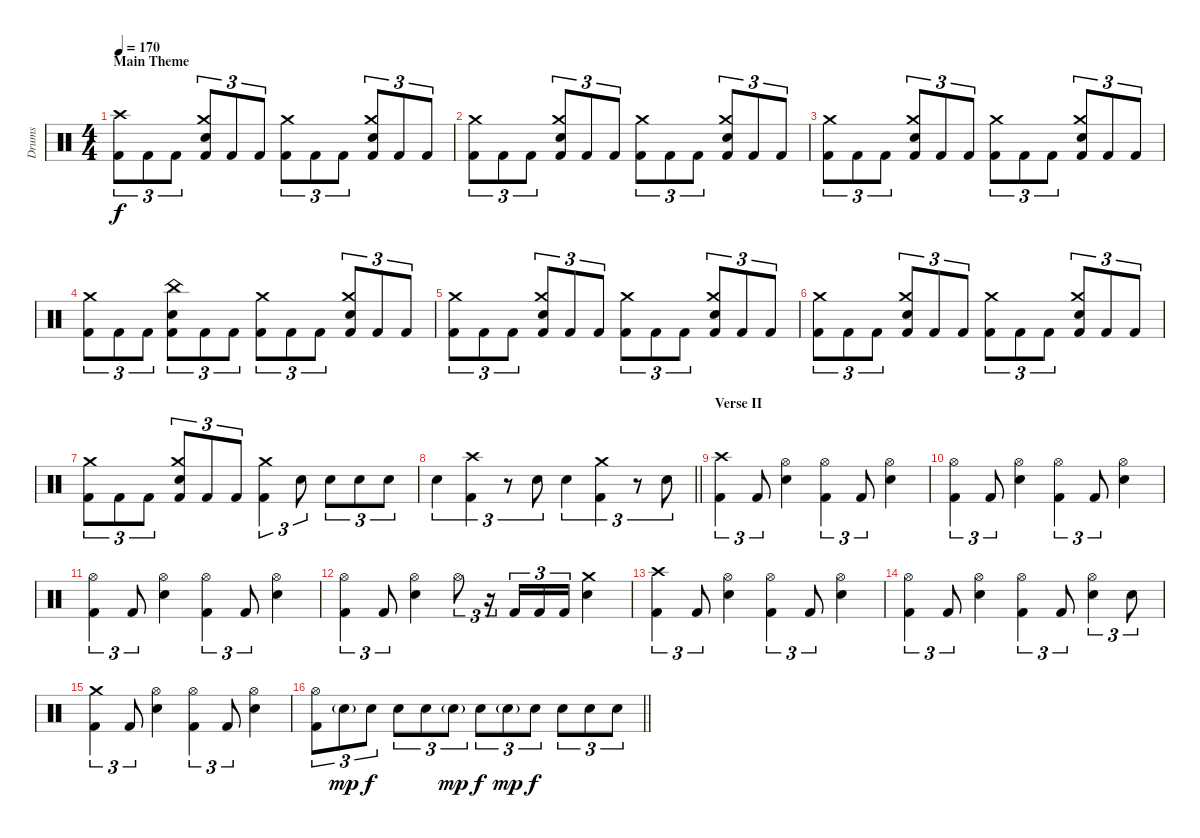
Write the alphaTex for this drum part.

\track ("Drums" "Drums") {instrument percussion}
\staff {score}
\articulation defaults
\ts (4 4)
\section ("" "Main Theme")
\tempo 170
\clef neutral
\ks c
("Crash high (hit)" "Kick (hit) 2").8{tu (3 2) dy f} "Kick (hit) 2".8{tu (3 2)} "Kick (hit) 2".8{tu (3 2)} ("Crash medium (hit)" "Electric Snare (hit)" "Kick (hit) 2").8{tu (3 2)} "Kick (hit) 2".8{tu (3 2)} "Kick (hit) 2".8{tu (3 2)} ("Crash medium (hit)" "Kick (hit) 2").8{tu (3 2)} "Kick (hit) 2".8{tu (3 2)} "Kick (hit) 2".8{tu (3 2)} ("Crash medium (hit)" "Electric Snare (hit)" "Kick (hit) 2").8{tu (3 2)} "Kick (hit) 2".8{tu (3 2)} "Kick (hit) 2".8{tu (3 2)} |
("Crash medium (hit)" "Kick (hit) 2").8{tu (3 2)} "Kick (hit) 2".8{tu (3 2)} "Kick (hit) 2".8{tu (3 2)} ("Crash medium (hit)" "Electric Snare (hit)" "Kick (hit) 2").8{tu (3 2)} "Kick (hit) 2".8{tu (3 2)} "Kick (hit) 2".8{tu (3 2)} ("Crash medium (hit)" "Kick (hit) 2").8{tu (3 2)} "Kick (hit) 2".8{tu (3 2)} "Kick (hit) 2".8{tu (3 2)} ("Crash medium (hit)" "Electric Snare (hit)" "Kick (hit) 2").8{tu (3 2)} "Kick (hit) 2".8{tu (3 2)} "Kick (hit) 2".8{tu (3 2)} |
("Crash medium (hit)" "Kick (hit) 2").8{tu (3 2)} "Kick (hit) 2".8{tu (3 2)} "Kick (hit) 2".8{tu (3 2)} ("Crash medium (hit)" "Electric Snare (hit)" "Kick (hit) 2").8{tu (3 2)} "Kick (hit) 2".8{tu (3 2)} "Kick (hit) 2".8{tu (3 2)} ("Crash medium (hit)" "Kick (hit) 2").8{tu (3 2)} "Kick (hit) 2".8{tu (3 2)} "Kick (hit) 2".8{tu (3 2)} ("Crash medium (hit)" "Electric Snare (hit)" "Kick (hit) 2").8{tu (3 2)} "Kick (hit) 2".8{tu (3 2)} "Kick (hit) 2".8{tu (3 2)} |
("Crash medium (hit)" "Kick (hit) 2").8{tu (3 2)} "Kick (hit) 2".8{tu (3 2)} "Kick (hit) 2".8{tu (3 2)} ("China (hit)" "Electric Snare (hit)" "Kick (hit) 2").8{tu (3 2)} "Kick (hit) 2".8{tu (3 2)} "Kick (hit) 2".8{tu (3 2)} ("Crash medium (hit)" "Kick (hit) 2").8{tu (3 2)} "Kick (hit) 2".8{tu (3 2)} "Kick (hit) 2".8{tu (3 2)} ("Crash medium (hit)" "Electric Snare (hit)" "Kick (hit) 2").8{tu (3 2)} "Kick (hit) 2".8{tu (3 2)} "Kick (hit) 2".8{tu (3 2)} |
("Crash medium (hit)" "Kick (hit) 2").8{tu (3 2)} "Kick (hit) 2".8{tu (3 2)} "Kick (hit) 2".8{tu (3 2)} ("Crash medium (hit)" "Electric Snare (hit)" "Kick (hit) 2").8{tu (3 2)} "Kick (hit) 2".8{tu (3 2)} "Kick (hit) 2".8{tu (3 2)} ("Crash medium (hit)" "Kick (hit) 2").8{tu (3 2)} "Kick (hit) 2".8{tu (3 2)} "Kick (hit) 2".8{tu (3 2)} ("Crash medium (hit)" "Electric Snare (hit)" "Kick (hit) 2").8{tu (3 2)} "Kick (hit) 2".8{tu (3 2)} "Kick (hit) 2".8{tu (3 2)} |
("Crash medium (hit)" "Kick (hit) 2").8{tu (3 2)} "Kick (hit) 2".8{tu (3 2)} "Kick (hit) 2".8{tu (3 2)} ("Crash medium (hit)" "Electric Snare (hit)" "Kick (hit) 2").8{tu (3 2)} "Kick (hit) 2".8{tu (3 2)} "Kick (hit) 2".8{tu (3 2)} ("Crash medium (hit)" "Kick (hit) 2").8{tu (3 2)} "Kick (hit) 2".8{tu (3 2)} "Kick (hit) 2".8{tu (3 2)} ("Crash medium (hit)" "Electric Snare (hit)" "Kick (hit) 2").8{tu (3 2)} "Kick (hit) 2".8{tu (3 2)} "Kick (hit) 2".8{tu (3 2)} |
("Crash medium (hit)" "Kick (hit) 2").8{tu (3 2)} "Kick (hit) 2".8{tu (3 2)} "Kick (hit) 2".8{tu (3 2)} ("Crash medium (hit)" "Electric Snare (hit)" "Kick (hit) 2").8{tu (3 2)} "Kick (hit) 2".8{tu (3 2)} "Kick (hit) 2".8{tu (3 2)} ("Crash medium (hit)" "Kick (hit) 2").4{tu (3 2)} "Electric Snare (hit)".8{tu (3 2)} "Electric Snare (hit)".8{tu (3 2)} "Electric Snare (hit)".8{tu (3 2)} "Electric Snare (hit)".8{tu (3 2)} |
\barLineRight lightlight "Electric Snare (hit)".4{tu (3 2)}
("Crash high (hit)" "Kick (hit) 2").4{tu (3 2)} r.8{tu (3 2)} "Electric Snare (hit)".8{tu (3 2)} "Electric Snare (hit)".4{tu (3 2)} ("Crash medium (hit)" "Kick (hit) 2").4{tu (3 2)} r.8{tu (3 2)} "Electric Snare (hit)".8{tu (3 2)} |
\section ("" "Verse II")
("Crash high (hit)" "Kick (hit) 2").4{tu (3 2)} "Kick (hit) 2".8{tu (3 2)} ("Hi-Hat (open)" "Electric Snare (hit)").4 ("Hi-Hat (open)" "Kick (hit) 2").4{tu (3 2)} "Kick (hit) 2".8{tu (3 2)} ("Hi-Hat (open)" "Electric Snare (hit)").4 |
("Hi-Hat (open)" "Kick (hit) 2").4{tu (3 2)} "Kick (hit) 2".8{tu (3 2)} ("Hi-Hat (open)" "Electric Snare (hit)").4 ("Hi-Hat (open)" "Kick (hit) 2").4{tu (3 2)} "Kick (hit) 2".8{tu (3 2)} ("Hi-Hat (open)" "Electric Snare (hit)").4 |
("Hi-Hat (open)" "Kick (hit) 2").4{tu (3 2)} "Kick (hit) 2".8{tu (3 2)} ("Hi-Hat (open)" "Electric Snare (hit)").4 ("Hi-Hat (open)" "Kick (hit) 2").4{tu (3 2)} "Kick (hit) 2".8{tu (3 2)} ("Hi-Hat (open)" "Electric Snare (hit)").4 |
("Hi-Hat (open)" "Kick (hit) 2").4{tu (3 2)} "Kick (hit) 2".8{tu (3 2)} ("Hi-Hat (open)" "Electric Snare (hit)").4 "Hi-Hat (open)".8{tu (3 2)} r.16{tu (3 2)} "Kick (hit) 2".16{tu (3 2)} "Kick (hit) 2".16{tu (3 2)} "Kick (hit) 2".16{tu (3 2)} ("Crash medium (hit)" "Electric Snare (hit)").4 |
("Crash high (hit)" "Kick (hit) 2").4{tu (3 2)} "Kick (hit) 2".8{tu (3 2)} ("Hi-Hat (open)" "Electric Snare (hit)").4 ("Hi-Hat (open)" "Kick (hit) 2").4{tu (3 2)} "Kick (hit) 2".8{tu (3 2)} ("Hi-Hat (open)" "Electric Snare (hit)").4 |
("Hi-Hat (open)" "Kick (hit) 2").4{tu (3 2)} "Kick (hit) 2".8{tu (3 2)} ("Hi-Hat (open)" "Electric Snare (hit)").4 ("Hi-Hat (open)" "Kick (hit) 2").4{tu (3 2)} "Kick (hit) 2".8{tu (3 2)} ("Hi-Hat (open)" "Electric Snare (hit)").4{tu (3 2)} "Electric Snare (hit)".8{tu (3 2)} |
("Crash medium (hit)" "Kick (hit) 2").4{tu (3 2)} "Kick (hit) 2".8{tu (3 2)} ("Hi-Hat (open)" "Electric Snare (hit)").4 ("Hi-Hat (open)" "Kick (hit) 2").4{tu (3 2)} "Kick (hit) 2".8{tu (3 2)} ("Hi-Hat (open)" "Electric Snare (hit)").4 |
\barLineRight lightlight
("Hi-Hat (open)" "Kick (hit) 2").8{tu (3 2)} "Electric Snare (hit)"{g}.8{tu (3 2) dy mp} "Electric Snare (hit)".8{tu (3 2) dy f} "Electric Snare (hit)".8{tu (3 2)} "Electric Snare (hit)".8{tu (3 2)} "Electric Snare (hit)"{g}.8{tu (3 2) dy mp} "Electric Snare (hit)".8{tu (3 2) dy f} "Electric Snare (hit)"{g}.8{tu (3 2) dy mp} "Electric Snare (hit)".8{tu (3 2) dy f} "Electric Snare (hit)".8{tu (3 2)} "Electric Snare (hit)".8{tu (3 2)} "Electric Snare (hit)".8{tu (3 2)}
